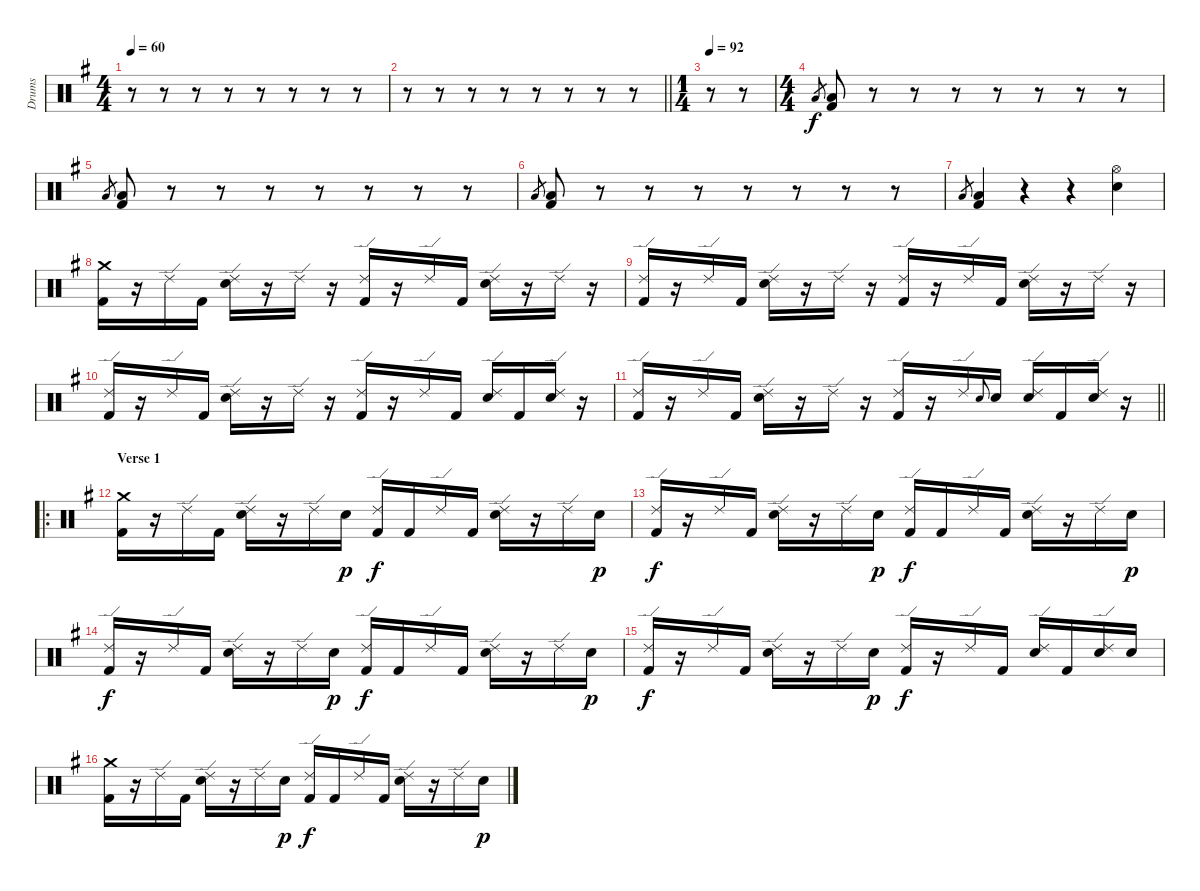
\track ("Drums" "Drums") {instrument percussion}
\staff {score}
\articulation defaults
\ts (4 4)
\tempo 60
\clef neutral
\ks g
r.8{dy f} r.8 r.8 r.8 r.8 r.8 r.8 r.8 |
\barLineRight lightlight
r.8 r.8 r.8 r.8 r.8 r.8 r.8 r.8 |
\ts (1 4)
\tempo 92
r.8 r.8 |
\ts (4 4)
"Low Floor Tom (hit)".8{gr} ("Low Floor Tom (hit)" "Kick (hit) 2").8 r.8 r.8 r.8 r.8 r.8 r.8 r.8 |
"Low Floor Tom (hit)".8{gr} ("Low Floor Tom (hit)" "Kick (hit) 2").8 r.8 r.8 r.8 r.8 r.8 r.8 r.8 |
"Low Floor Tom (hit)".8{gr} ("Low Floor Tom (hit)" "Kick (hit) 2").8 r.8 r.8 r.8 r.8 r.8 r.8 r.8 |
"Low Floor Tom (hit)".8{gr} ("Low Floor Tom (hit)" "Kick (hit) 2").4 r.4 r.4 ("Hi-Hat (open)" "Snare (hit) 2").4 |
("Crash medium (hit)" "Kick (hit) 2").16 r.16 "Ride (edge) 2".16 "Kick (hit) 2".16 ("Ride (edge) 2" "Snare (hit) 2").16 r.16 "Ride (edge) 2".16 r.16 ("Ride (edge) 2" "Kick (hit) 2").16 r.16 "Ride (edge) 2".16 "Kick (hit) 2".16 ("Ride (edge) 2" "Snare (hit) 2").16 r.16 "Ride (edge) 2".16 r.16 |
("Ride (edge) 2" "Kick (hit) 2").16 r.16 "Ride (edge) 2".16 "Kick (hit) 2".16 ("Ride (edge) 2" "Snare (hit) 2").16 r.16 "Ride (edge) 2".16 r.16 ("Ride (edge) 2" "Kick (hit) 2").16 r.16 "Ride (edge) 2".16 "Kick (hit) 2".16 ("Ride (edge) 2" "Snare (hit) 2").16 r.16 "Ride (edge) 2".16 r.16 |
("Ride (edge) 2" "Kick (hit) 2").16 r.16 "Ride (edge) 2".16 "Kick (hit) 2".16 ("Ride (edge) 2" "Snare (hit) 2").16 r.16 "Ride (edge) 2".16 r.16 ("Ride (edge) 2" "Kick (hit) 2").16 r.16 "Ride (edge) 2".16 "Kick (hit) 2".16 ("Ride (edge) 2" "Snare (hit) 2").16 "Kick (hit) 2".16 ("Ride (edge) 2" "Snare (hit) 2").16 r.16 |
\barLineRight lightlight
("Ride (edge) 2" "Kick (hit) 2").16 r.16 "Ride (edge) 2".16 "Kick (hit) 2".16 ("Ride (edge) 2" "Snare (hit) 2").16 r.16 "Ride (edge) 2".16 r.16 ("Ride (edge) 2" "Kick (hit) 2").16 r.16 "Ride (edge) 2".16 "Snare (hit) 2".8{gr onbeat} "Snare (hit) 2".16 ("Ride (edge) 2" "Snare (hit) 2").16 "Kick (hit) 2".16 ("Ride (edge) 2" "Snare (hit) 2").16 r.16 |
\ro
\section ("" "Verse 1")
("Crash medium (hit)" "Kick (hit) 2").16 r.16 "Ride (edge) 2".16 "Kick (hit) 2".16 ("Ride (edge) 2" "Snare (hit) 2").16 r.16 "Ride (edge) 2".16 "Snare (hit) 2".16{dy p} ("Ride (edge) 2" "Kick (hit) 2").16{dy f} "Kick (hit) 2".16 "Ride (edge) 2".16 "Kick (hit) 2".16 ("Ride (edge) 2" "Snare (hit) 2").16 r.16 "Ride (edge) 2".16 "Snare (hit) 2".16{dy p} |
("Ride (edge) 2" "Kick (hit) 2").16{dy f} r.16 "Ride (edge) 2".16 "Kick (hit) 2".16 ("Ride (edge) 2" "Snare (hit) 2").16 r.16 "Ride (edge) 2".16 "Snare (hit) 2".16{dy p} ("Ride (edge) 2" "Kick (hit) 2").16{dy f} "Kick (hit) 2".16 "Ride (edge) 2".16 "Kick (hit) 2".16 ("Ride (edge) 2" "Snare (hit) 2").16 r.16 "Ride (edge) 2".16 "Snare (hit) 2".16{dy p} |
("Ride (edge) 2" "Kick (hit) 2").16{dy f} r.16 "Ride (edge) 2".16 "Kick (hit) 2".16 ("Ride (edge) 2" "Snare (hit) 2").16 r.16 "Ride (edge) 2".16 "Snare (hit) 2".16{dy p} ("Ride (edge) 2" "Kick (hit) 2").16{dy f} "Kick (hit) 2".16 "Ride (edge) 2".16 "Kick (hit) 2".16 ("Ride (edge) 2" "Snare (hit) 2").16 r.16 "Ride (edge) 2".16 "Snare (hit) 2".16{dy p} |
("Ride (edge) 2" "Kick (hit) 2").16{dy f} r.16 "Ride (edge) 2".16 "Kick (hit) 2".16 ("Ride (edge) 2" "Snare (hit) 2").16 r.16 "Ride (edge) 2".16 "Snare (hit) 2".16{dy p} ("Ride (edge) 2" "Kick (hit) 2").16{dy f} r.16 "Ride (edge) 2".16 "Kick (hit) 2".16 ("Ride (edge) 2" "Snare (hit) 2").16 "Kick (hit) 2".16 ("Ride (edge) 2" "Snare (hit) 2").16 "Snare (hit) 2".16 |
("Crash medium (hit)" "Kick (hit) 2").16 r.16 "Ride (edge) 2".16 "Kick (hit) 2".16 ("Ride (edge) 2" "Snare (hit) 2").16 r.16 "Ride (edge) 2".16 "Snare (hit) 2".16{dy p} ("Ride (edge) 2" "Kick (hit) 2").16{dy f} "Kick (hit) 2".16 "Ride (edge) 2".16 "Kick (hit) 2".16 ("Ride (edge) 2" "Snare (hit) 2").16 r.16 "Ride (edge) 2".16 "Snare (hit) 2".16{dy p}
